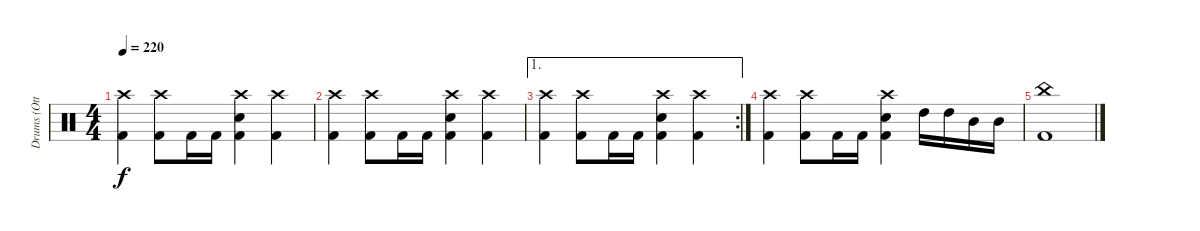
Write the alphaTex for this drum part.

\track ("Drums (Otto)" "Drums (Ott") {instrument percussion}
\staff {score}
\articulation defaults
\ts (4 4)
\tempo 220
\clef neutral
\ks c
("Crash high (hit)" "Kick (hit) 2").4{dy f} ("Crash high (hit)" "Kick (hit) 2").8 "Kick (hit) 2".16 "Kick (hit) 2".16 ("Crash high (hit)" "Electric Snare (hit)" "Kick (hit) 2").4 ("Crash high (hit)" "Kick (hit) 2").4 |
("Crash high (hit)" "Kick (hit) 2").4 ("Crash high (hit)" "Kick (hit) 2").8 "Kick (hit) 2".16 "Kick (hit) 2".16 ("Crash high (hit)" "Electric Snare (hit)" "Kick (hit) 2").4 ("Crash high (hit)" "Kick (hit) 2").4 |
\ae 1
\rc 2
("Crash high (hit)" "Kick (hit) 2").4 ("Crash high (hit)" "Kick (hit) 2").8 "Kick (hit) 2".16 "Kick (hit) 2".16 ("Crash high (hit)" "Electric Snare (hit)" "Kick (hit) 2").4 ("Crash high (hit)" "Kick (hit) 2").4 |
("Crash high (hit)" "Kick (hit) 2").4 ("Crash high (hit)" "Kick (hit) 2").8 "Kick (hit) 2".16 "Kick (hit) 2".16 ("Crash high (hit)" "Electric Snare (hit)" "Kick (hit) 2").4 "High Tom (hit)".16 "High Tom (hit)".16 "Mid Tom (hit)".16 "Mid Tom (hit)".16 |
("China (hit)" "Kick (hit) 2").1
